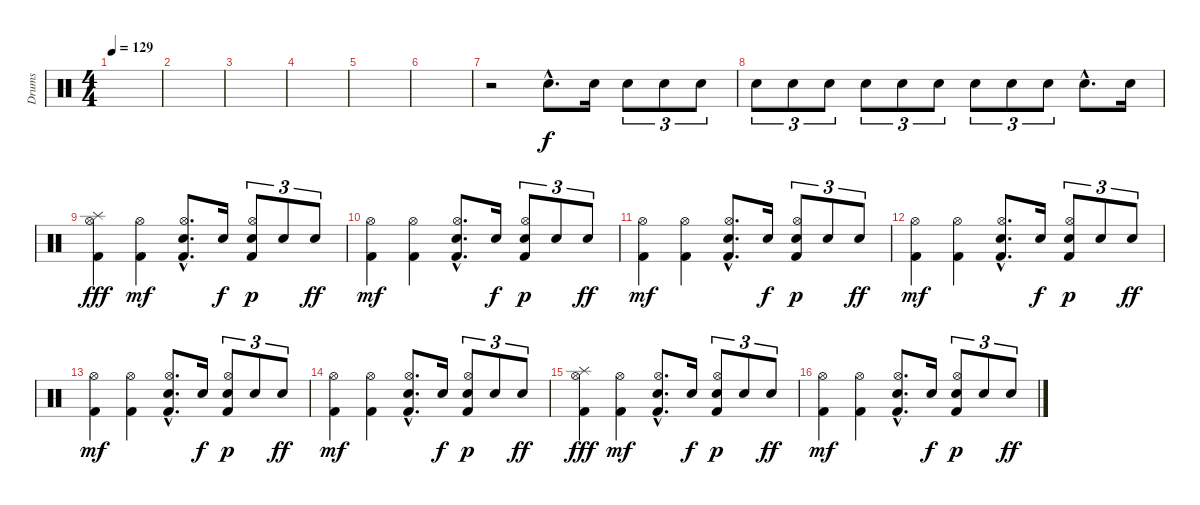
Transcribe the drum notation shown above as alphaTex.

\track ("Drums" "Drums") {instrument percussion}
\staff {score}
\articulation defaults
\ts (4 4)
\tempo 129
\clef neutral
\ks c
|
|
|
|
|
|
r.2 "Electric Snare (hit)"{hac}.8{d} "Electric Snare (hit)".16 "Electric Snare (hit)".8{tu (3 2)} "Electric Snare (hit)".8{tu (3 2)} "Electric Snare (hit)".8{tu (3 2)} |
"Electric Snare (hit)".8{tu (3 2)} "Electric Snare (hit)".8{tu (3 2)} "Electric Snare (hit)".8{tu (3 2)} "Electric Snare (hit)".8{tu (3 2)} "Electric Snare (hit)".8{tu (3 2)} "Electric Snare (hit)".8{tu (3 2)} "Electric Snare (hit)".8{tu (3 2)} "Electric Snare (hit)".8{tu (3 2)} "Electric Snare (hit)".8{tu (3 2)} "Electric Snare (hit)"{hac}.8{d} "Electric Snare (hit)".16 |
("Hi-Hat (open)" "Splash (hit)" "Kick (hit) 2").4{dy fff} ("Hi-Hat (open)" "Kick (hit) 2").4{dy mf} ("Hi-Hat (open)"{hac} "Electric Snare (hit)"{hac} "Kick (hit) 2"{hac}).8{d} "Electric Snare (hit)".16{dy f} ("Hi-Hat (open)" "Electric Snare (hit)" "Kick (hit) 2").8{tu (3 2) dy p} "Electric Snare (hit)".8{tu (3 2)} "Electric Snare (hit)".8{tu (3 2) dy ff} |
("Hi-Hat (open)" "Kick (hit) 2").4{dy mf} ("Hi-Hat (open)" "Kick (hit) 2").4 ("Hi-Hat (open)"{hac} "Electric Snare (hit)"{hac} "Kick (hit) 2"{hac}).8{d} "Electric Snare (hit)".16{dy f} ("Hi-Hat (open)" "Electric Snare (hit)" "Kick (hit) 2").8{tu (3 2) dy p} "Electric Snare (hit)".8{tu (3 2)} "Electric Snare (hit)".8{tu (3 2) dy ff} |
("Hi-Hat (open)" "Kick (hit) 2").4{dy mf} ("Hi-Hat (open)" "Kick (hit) 2").4 ("Hi-Hat (open)"{hac} "Electric Snare (hit)"{hac} "Kick (hit) 2"{hac}).8{d} "Electric Snare (hit)".16{dy f} ("Hi-Hat (open)" "Electric Snare (hit)" "Kick (hit) 2").8{tu (3 2) dy p} "Electric Snare (hit)".8{tu (3 2)} "Electric Snare (hit)".8{tu (3 2) dy ff} |
("Hi-Hat (open)" "Kick (hit) 2").4{dy mf} ("Hi-Hat (open)" "Kick (hit) 2").4 ("Hi-Hat (open)"{hac} "Electric Snare (hit)"{hac} "Kick (hit) 2"{hac}).8{d} "Electric Snare (hit)".16{dy f} ("Hi-Hat (open)" "Electric Snare (hit)" "Kick (hit) 2").8{tu (3 2) dy p} "Electric Snare (hit)".8{tu (3 2)} "Electric Snare (hit)".8{tu (3 2) dy ff} |
("Hi-Hat (open)" "Kick (hit) 2").4{dy mf} ("Hi-Hat (open)" "Kick (hit) 2").4 ("Hi-Hat (open)"{hac} "Electric Snare (hit)"{hac} "Kick (hit) 2"{hac}).8{d} "Electric Snare (hit)".16{dy f} ("Hi-Hat (open)" "Electric Snare (hit)" "Kick (hit) 2").8{tu (3 2) dy p} "Electric Snare (hit)".8{tu (3 2)} "Electric Snare (hit)".8{tu (3 2) dy ff} |
("Hi-Hat (open)" "Kick (hit) 2").4{dy mf} ("Hi-Hat (open)" "Kick (hit) 2").4 ("Hi-Hat (open)"{hac} "Electric Snare (hit)"{hac} "Kick (hit) 2"{hac}).8{d} "Electric Snare (hit)".16{dy f} ("Hi-Hat (open)" "Electric Snare (hit)" "Kick (hit) 2").8{tu (3 2) dy p} "Electric Snare (hit)".8{tu (3 2)} "Electric Snare (hit)".8{tu (3 2) dy ff} |
("Hi-Hat (open)" "Splash (hit)" "Kick (hit) 2").4{dy fff} ("Hi-Hat (open)" "Kick (hit) 2").4{dy mf} ("Hi-Hat (open)"{hac} "Electric Snare (hit)"{hac} "Kick (hit) 2"{hac}).8{d} "Electric Snare (hit)".16{dy f} ("Hi-Hat (open)" "Electric Snare (hit)" "Kick (hit) 2").8{tu (3 2) dy p} "Electric Snare (hit)".8{tu (3 2)} "Electric Snare (hit)".8{tu (3 2) dy ff} |
("Hi-Hat (open)" "Kick (hit) 2").4{dy mf} ("Hi-Hat (open)" "Kick (hit) 2").4 ("Hi-Hat (open)"{hac} "Electric Snare (hit)"{hac} "Kick (hit) 2"{hac}).8{d} "Electric Snare (hit)".16{dy f} ("Hi-Hat (open)" "Electric Snare (hit)" "Kick (hit) 2").8{tu (3 2) dy p} "Electric Snare (hit)".8{tu (3 2)} "Electric Snare (hit)".8{tu (3 2) dy ff}
